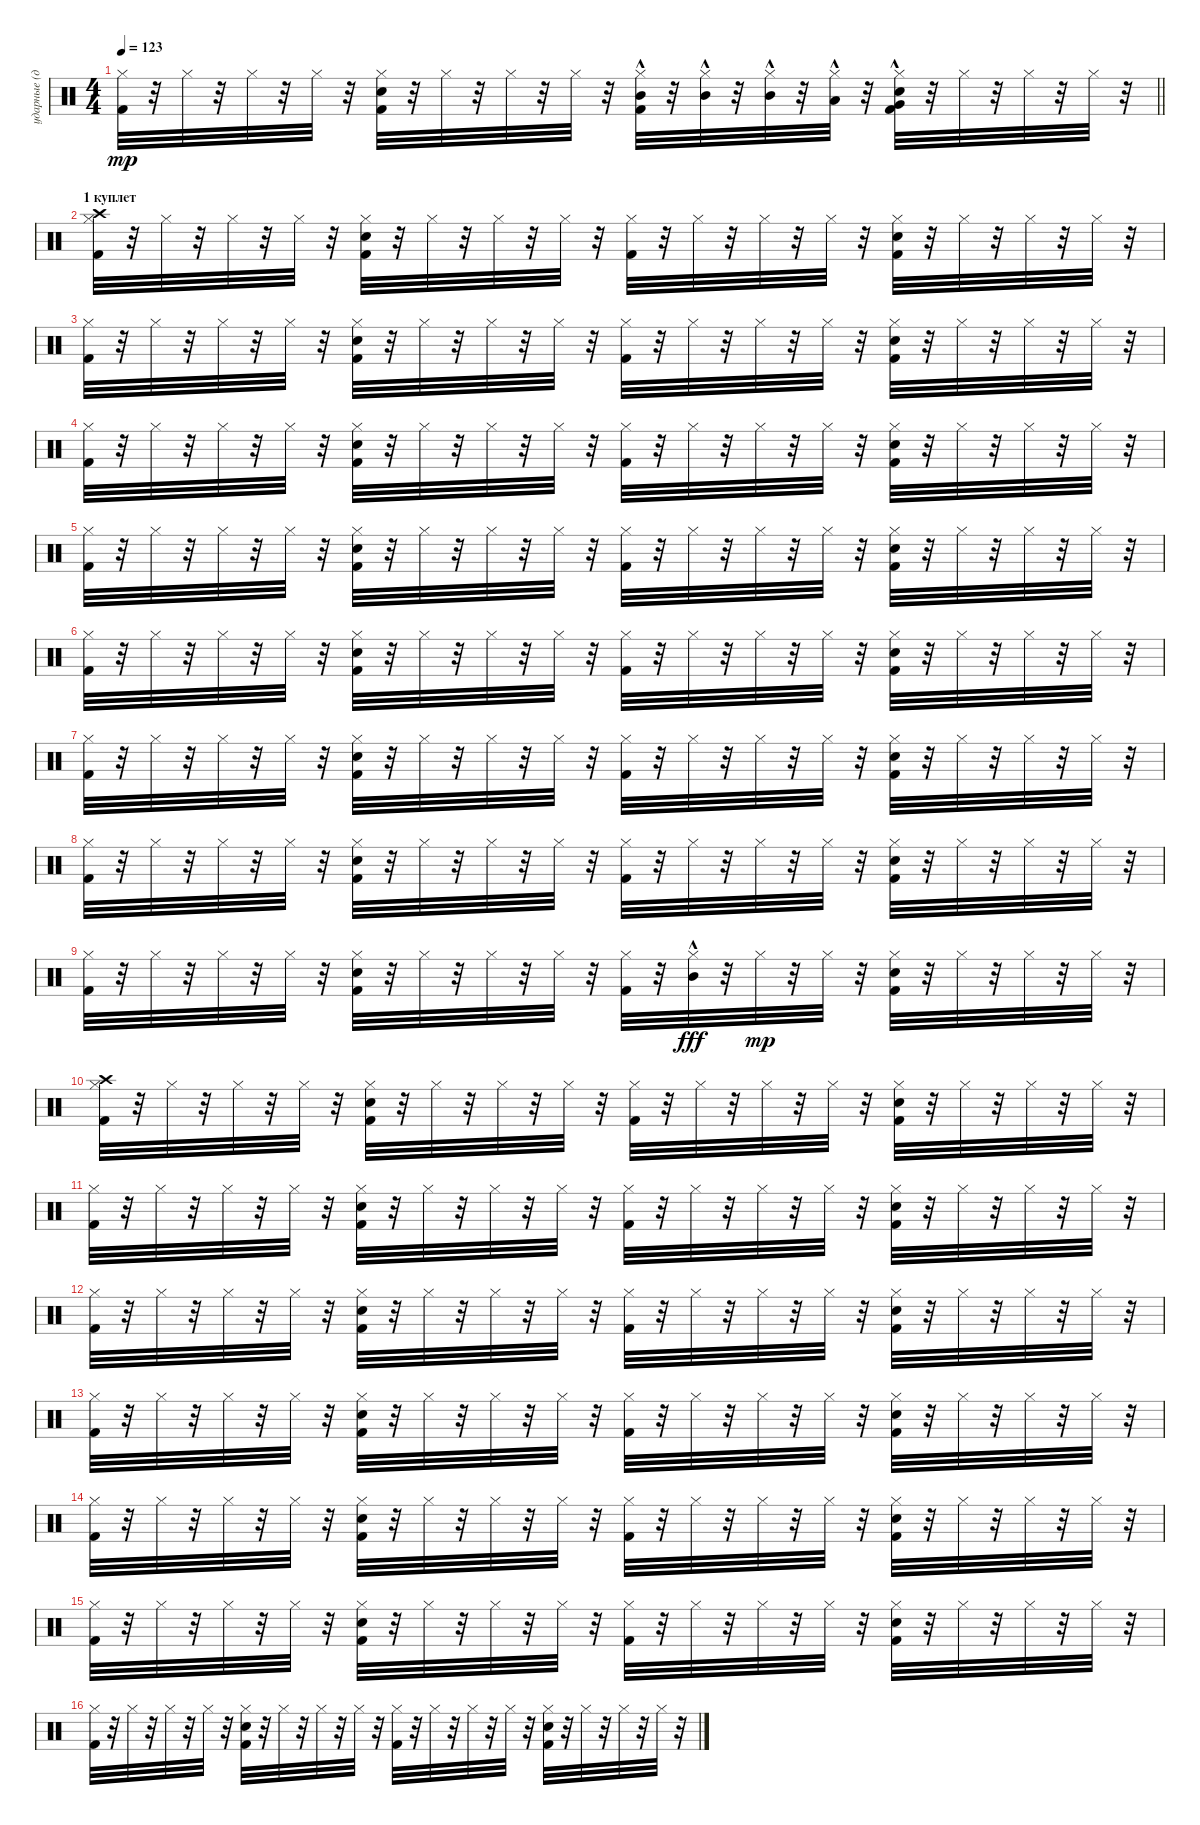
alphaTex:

\track ("ударные (драм-машина)" "ударные (д") {instrument percussion}
\staff {score}
\articulation defaults
\ts (4 4)
\tempo 123
\clef neutral
\barLineRight lightlight
\ks c
("Kick (hit) 2" "Hi-Hat (closed)").32{dy mp} r.32 "Hi-Hat (closed)".32 r.32 "Hi-Hat (closed)".32 r.32 "Hi-Hat (closed)".32 r.32 ("Kick (hit) 2" "Snare (hit) 2" "Hi-Hat (closed)").32 r.32 "Hi-Hat (closed)".32 r.32 "Hi-Hat (closed)".32 r.32 "Hi-Hat (closed)".32 r.32 ("Mid Tom (hit)"{hac} "Kick (hit) 2" "Hi-Hat (closed)").32 r.32 ("Mid Tom (hit)"{hac} "Hi-Hat (closed)").32 r.32 ("Mid Tom (hit)"{hac} "Hi-Hat (closed)").32 r.32 ("Low Tom (hit)"{hac} "Hi-Hat (closed)").32 r.32 ("Very Low Tom (hit)"{hac} "Kick (hit) 2" "Snare (hit) 2" "Hi-Hat (closed)").32 r.32 "Hi-Hat (closed)".32 r.32 "Hi-Hat (closed)".32 r.32 "Hi-Hat (closed)".32 r.32 |
\section ("" "1 куплет")
("Crash high (hit)" "Kick (hit) 2" "Hi-Hat (closed)").32 r.32 "Hi-Hat (closed)".32 r.32 "Hi-Hat (closed)".32 r.32 "Hi-Hat (closed)".32 r.32 ("Kick (hit) 2" "Snare (hit) 2" "Hi-Hat (closed)").32 r.32 "Hi-Hat (closed)".32 r.32 "Hi-Hat (closed)".32 r.32 "Hi-Hat (closed)".32 r.32 ("Kick (hit) 2" "Hi-Hat (closed)").32 r.32 "Hi-Hat (closed)".32 r.32 "Hi-Hat (closed)".32 r.32 "Hi-Hat (closed)".32 r.32 ("Kick (hit) 2" "Snare (hit) 2" "Hi-Hat (closed)").32 r.32 "Hi-Hat (closed)".32 r.32 "Hi-Hat (closed)".32 r.32 "Hi-Hat (closed)".32 r.32 |
("Kick (hit) 2" "Hi-Hat (closed)").32 r.32 "Hi-Hat (closed)".32 r.32 "Hi-Hat (closed)".32 r.32 "Hi-Hat (closed)".32 r.32 ("Kick (hit) 2" "Snare (hit) 2" "Hi-Hat (closed)").32 r.32 "Hi-Hat (closed)".32 r.32 "Hi-Hat (closed)".32 r.32 "Hi-Hat (closed)".32 r.32 ("Kick (hit) 2" "Hi-Hat (closed)").32 r.32 "Hi-Hat (closed)".32 r.32 "Hi-Hat (closed)".32 r.32 "Hi-Hat (closed)".32 r.32 ("Kick (hit) 2" "Snare (hit) 2" "Hi-Hat (closed)").32 r.32 "Hi-Hat (closed)".32 r.32 "Hi-Hat (closed)".32 r.32 "Hi-Hat (closed)".32 r.32 |
("Kick (hit) 2" "Hi-Hat (closed)").32 r.32 "Hi-Hat (closed)".32 r.32 "Hi-Hat (closed)".32 r.32 "Hi-Hat (closed)".32 r.32 ("Kick (hit) 2" "Snare (hit) 2" "Hi-Hat (closed)").32 r.32 "Hi-Hat (closed)".32 r.32 "Hi-Hat (closed)".32 r.32 "Hi-Hat (closed)".32 r.32 ("Kick (hit) 2" "Hi-Hat (closed)").32 r.32 "Hi-Hat (closed)".32 r.32 "Hi-Hat (closed)".32 r.32 "Hi-Hat (closed)".32 r.32 ("Kick (hit) 2" "Snare (hit) 2" "Hi-Hat (closed)").32 r.32 "Hi-Hat (closed)".32 r.32 "Hi-Hat (closed)".32 r.32 "Hi-Hat (closed)".32 r.32 |
("Kick (hit) 2" "Hi-Hat (closed)").32 r.32 "Hi-Hat (closed)".32 r.32 "Hi-Hat (closed)".32 r.32 "Hi-Hat (closed)".32 r.32 ("Kick (hit) 2" "Snare (hit) 2" "Hi-Hat (closed)").32 r.32 "Hi-Hat (closed)".32 r.32 "Hi-Hat (closed)".32 r.32 "Hi-Hat (closed)".32 r.32 ("Kick (hit) 2" "Hi-Hat (closed)").32 r.32 "Hi-Hat (closed)".32 r.32 "Hi-Hat (closed)".32 r.32 "Hi-Hat (closed)".32 r.32 ("Kick (hit) 2" "Snare (hit) 2" "Hi-Hat (closed)").32 r.32 "Hi-Hat (closed)".32 r.32 "Hi-Hat (closed)".32 r.32 "Hi-Hat (closed)".32 r.32 |
("Kick (hit) 2" "Hi-Hat (closed)").32 r.32 "Hi-Hat (closed)".32 r.32 "Hi-Hat (closed)".32 r.32 "Hi-Hat (closed)".32 r.32 ("Kick (hit) 2" "Snare (hit) 2" "Hi-Hat (closed)").32 r.32 "Hi-Hat (closed)".32 r.32 "Hi-Hat (closed)".32 r.32 "Hi-Hat (closed)".32 r.32 ("Kick (hit) 2" "Hi-Hat (closed)").32 r.32 "Hi-Hat (closed)".32 r.32 "Hi-Hat (closed)".32 r.32 "Hi-Hat (closed)".32 r.32 ("Kick (hit) 2" "Snare (hit) 2" "Hi-Hat (closed)").32 r.32 "Hi-Hat (closed)".32 r.32 "Hi-Hat (closed)".32 r.32 "Hi-Hat (closed)".32 r.32 |
("Kick (hit) 2" "Hi-Hat (closed)").32 r.32 "Hi-Hat (closed)".32 r.32 "Hi-Hat (closed)".32 r.32 "Hi-Hat (closed)".32 r.32 ("Kick (hit) 2" "Snare (hit) 2" "Hi-Hat (closed)").32 r.32 "Hi-Hat (closed)".32 r.32 "Hi-Hat (closed)".32 r.32 "Hi-Hat (closed)".32 r.32 ("Kick (hit) 2" "Hi-Hat (closed)").32 r.32 "Hi-Hat (closed)".32 r.32 "Hi-Hat (closed)".32 r.32 "Hi-Hat (closed)".32 r.32 ("Kick (hit) 2" "Snare (hit) 2" "Hi-Hat (closed)").32 r.32 "Hi-Hat (closed)".32 r.32 "Hi-Hat (closed)".32 r.32 "Hi-Hat (closed)".32 r.32 |
("Kick (hit) 2" "Hi-Hat (closed)").32 r.32 "Hi-Hat (closed)".32 r.32 "Hi-Hat (closed)".32 r.32 "Hi-Hat (closed)".32 r.32 ("Kick (hit) 2" "Snare (hit) 2" "Hi-Hat (closed)").32 r.32 "Hi-Hat (closed)".32 r.32 "Hi-Hat (closed)".32 r.32 "Hi-Hat (closed)".32 r.32 ("Kick (hit) 2" "Hi-Hat (closed)").32 r.32 "Hi-Hat (closed)".32 r.32 "Hi-Hat (closed)".32 r.32 "Hi-Hat (closed)".32 r.32 ("Kick (hit) 2" "Snare (hit) 2" "Hi-Hat (closed)").32 r.32 "Hi-Hat (closed)".32 r.32 "Hi-Hat (closed)".32 r.32 "Hi-Hat (closed)".32 r.32 |
("Kick (hit) 2" "Hi-Hat (closed)").32 r.32 "Hi-Hat (closed)".32 r.32 "Hi-Hat (closed)".32 r.32 "Hi-Hat (closed)".32 r.32 ("Kick (hit) 2" "Snare (hit) 2" "Hi-Hat (closed)").32 r.32 "Hi-Hat (closed)".32 r.32 "Hi-Hat (closed)".32 r.32 "Hi-Hat (closed)".32 r.32 ("Kick (hit) 2" "Hi-Hat (closed)").32 r.32 ("Hi-Hat (closed)" "Mid Tom (hit)"{hac}).32{dy fff} r.32 "Hi-Hat (closed)".32{dy mp} r.32 "Hi-Hat (closed)".32 r.32 ("Kick (hit) 2" "Snare (hit) 2" "Hi-Hat (closed)").32 r.32 "Hi-Hat (closed)".32 r.32 "Hi-Hat (closed)".32 r.32 "Hi-Hat (closed)".32 r.32 |
("Crash high (hit)" "Kick (hit) 2" "Hi-Hat (closed)").32 r.32 "Hi-Hat (closed)".32 r.32 "Hi-Hat (closed)".32 r.32 "Hi-Hat (closed)".32 r.32 ("Kick (hit) 2" "Snare (hit) 2" "Hi-Hat (closed)").32 r.32 "Hi-Hat (closed)".32 r.32 "Hi-Hat (closed)".32 r.32 "Hi-Hat (closed)".32 r.32 ("Kick (hit) 2" "Hi-Hat (closed)").32 r.32 "Hi-Hat (closed)".32 r.32 "Hi-Hat (closed)".32 r.32 "Hi-Hat (closed)".32 r.32 ("Kick (hit) 2" "Snare (hit) 2" "Hi-Hat (closed)").32 r.32 "Hi-Hat (closed)".32 r.32 "Hi-Hat (closed)".32 r.32 "Hi-Hat (closed)".32 r.32 |
("Kick (hit) 2" "Hi-Hat (closed)").32 r.32 "Hi-Hat (closed)".32 r.32 "Hi-Hat (closed)".32 r.32 "Hi-Hat (closed)".32 r.32 ("Kick (hit) 2" "Snare (hit) 2" "Hi-Hat (closed)").32 r.32 "Hi-Hat (closed)".32 r.32 "Hi-Hat (closed)".32 r.32 "Hi-Hat (closed)".32 r.32 ("Kick (hit) 2" "Hi-Hat (closed)").32 r.32 "Hi-Hat (closed)".32 r.32 "Hi-Hat (closed)".32 r.32 "Hi-Hat (closed)".32 r.32 ("Kick (hit) 2" "Snare (hit) 2" "Hi-Hat (closed)").32 r.32 "Hi-Hat (closed)".32 r.32 "Hi-Hat (closed)".32 r.32 "Hi-Hat (closed)".32 r.32 |
("Kick (hit) 2" "Hi-Hat (closed)").32 r.32 "Hi-Hat (closed)".32 r.32 "Hi-Hat (closed)".32 r.32 "Hi-Hat (closed)".32 r.32 ("Kick (hit) 2" "Snare (hit) 2" "Hi-Hat (closed)").32 r.32 "Hi-Hat (closed)".32 r.32 "Hi-Hat (closed)".32 r.32 "Hi-Hat (closed)".32 r.32 ("Kick (hit) 2" "Hi-Hat (closed)").32 r.32 "Hi-Hat (closed)".32 r.32 "Hi-Hat (closed)".32 r.32 "Hi-Hat (closed)".32 r.32 ("Kick (hit) 2" "Snare (hit) 2" "Hi-Hat (closed)").32 r.32 "Hi-Hat (closed)".32 r.32 "Hi-Hat (closed)".32 r.32 "Hi-Hat (closed)".32 r.32 |
("Kick (hit) 2" "Hi-Hat (closed)").32 r.32 "Hi-Hat (closed)".32 r.32 "Hi-Hat (closed)".32 r.32 "Hi-Hat (closed)".32 r.32 ("Kick (hit) 2" "Snare (hit) 2" "Hi-Hat (closed)").32 r.32 "Hi-Hat (closed)".32 r.32 "Hi-Hat (closed)".32 r.32 "Hi-Hat (closed)".32 r.32 ("Kick (hit) 2" "Hi-Hat (closed)").32 r.32 "Hi-Hat (closed)".32 r.32 "Hi-Hat (closed)".32 r.32 "Hi-Hat (closed)".32 r.32 ("Kick (hit) 2" "Snare (hit) 2" "Hi-Hat (closed)").32 r.32 "Hi-Hat (closed)".32 r.32 "Hi-Hat (closed)".32 r.32 "Hi-Hat (closed)".32 r.32 |
("Kick (hit) 2" "Hi-Hat (closed)").32 r.32 "Hi-Hat (closed)".32 r.32 "Hi-Hat (closed)".32 r.32 "Hi-Hat (closed)".32 r.32 ("Kick (hit) 2" "Snare (hit) 2" "Hi-Hat (closed)").32 r.32 "Hi-Hat (closed)".32 r.32 "Hi-Hat (closed)".32 r.32 "Hi-Hat (closed)".32 r.32 ("Kick (hit) 2" "Hi-Hat (closed)").32 r.32 "Hi-Hat (closed)".32 r.32 "Hi-Hat (closed)".32 r.32 "Hi-Hat (closed)".32 r.32 ("Kick (hit) 2" "Snare (hit) 2" "Hi-Hat (closed)").32 r.32 "Hi-Hat (closed)".32 r.32 "Hi-Hat (closed)".32 r.32 "Hi-Hat (closed)".32 r.32 |
("Kick (hit) 2" "Hi-Hat (closed)").32 r.32 "Hi-Hat (closed)".32 r.32 "Hi-Hat (closed)".32 r.32 "Hi-Hat (closed)".32 r.32 ("Kick (hit) 2" "Snare (hit) 2" "Hi-Hat (closed)").32 r.32 "Hi-Hat (closed)".32 r.32 "Hi-Hat (closed)".32 r.32 "Hi-Hat (closed)".32 r.32 ("Kick (hit) 2" "Hi-Hat (closed)").32 r.32 "Hi-Hat (closed)".32 r.32 "Hi-Hat (closed)".32 r.32 "Hi-Hat (closed)".32 r.32 ("Kick (hit) 2" "Snare (hit) 2" "Hi-Hat (closed)").32 r.32 "Hi-Hat (closed)".32 r.32 "Hi-Hat (closed)".32 r.32 "Hi-Hat (closed)".32 r.32 |
("Kick (hit) 2" "Hi-Hat (closed)").32 r.32 "Hi-Hat (closed)".32 r.32 "Hi-Hat (closed)".32 r.32 "Hi-Hat (closed)".32 r.32 ("Kick (hit) 2" "Snare (hit) 2" "Hi-Hat (closed)").32 r.32 "Hi-Hat (closed)".32 r.32 "Hi-Hat (closed)".32 r.32 "Hi-Hat (closed)".32 r.32 ("Kick (hit) 2" "Hi-Hat (closed)").32 r.32 "Hi-Hat (closed)".32 r.32 "Hi-Hat (closed)".32 r.32 "Hi-Hat (closed)".32 r.32 ("Kick (hit) 2" "Snare (hit) 2" "Hi-Hat (closed)").32 r.32 "Hi-Hat (closed)".32 r.32 "Hi-Hat (closed)".32 r.32 "Hi-Hat (closed)".32 r.32
